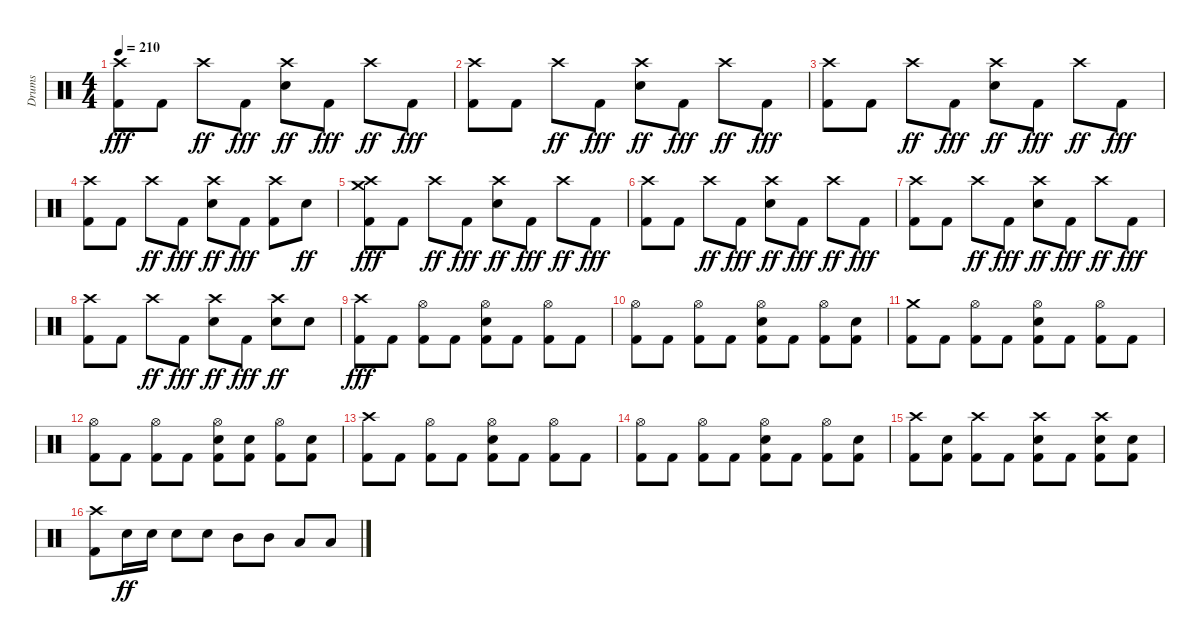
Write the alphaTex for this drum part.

\track ("Drums" "Drums") {instrument percussion}
\staff {score}
\articulation defaults
\ts (4 4)
\tempo 210
\clef neutral
\ks c
("Crash high (hit)" "Kick (hit) 2").8{dy fff} "Kick (hit) 2".8 "Crash high (hit)".8{dy ff} "Kick (hit) 2".8{dy fff} ("Crash high (hit)" "Snare (hit) 2").8{dy ff} "Kick (hit) 2".8{dy fff} "Crash high (hit)".8{dy ff} "Kick (hit) 2".8{dy fff} |
("Crash high (hit)" "Kick (hit) 2").8 "Kick (hit) 2".8 "Crash high (hit)".8{dy ff} "Kick (hit) 2".8{dy fff} ("Crash high (hit)" "Snare (hit) 2").8{dy ff} "Kick (hit) 2".8{dy fff} "Crash high (hit)".8{dy ff} "Kick (hit) 2".8{dy fff} |
("Crash high (hit)" "Kick (hit) 2").8 "Kick (hit) 2".8 "Crash high (hit)".8{dy ff} "Kick (hit) 2".8{dy fff} ("Crash high (hit)" "Snare (hit) 2").8{dy ff} "Kick (hit) 2".8{dy fff} "Crash high (hit)".8{dy ff} "Kick (hit) 2".8{dy fff} |
("Crash high (hit)" "Kick (hit) 2").8 "Kick (hit) 2".8 "Crash high (hit)".8{dy ff} "Kick (hit) 2".8{dy fff} ("Crash high (hit)" "Snare (hit) 2").8{dy ff} "Kick (hit) 2".8{dy fff} ("Crash high (hit)" "Kick (hit) 2").8 "Snare (hit) 2".8{dy ff} |
("Crash medium (hit)" "Crash high (hit)" "Kick (hit) 2").8{dy fff} "Kick (hit) 2".8 "Crash high (hit)".8{dy ff} "Kick (hit) 2".8{dy fff} ("Crash high (hit)" "Snare (hit) 2").8{dy ff} "Kick (hit) 2".8{dy fff} "Crash high (hit)".8{dy ff} "Kick (hit) 2".8{dy fff} |
("Crash high (hit)" "Kick (hit) 2").8 "Kick (hit) 2".8 "Crash high (hit)".8{dy ff} "Kick (hit) 2".8{dy fff} ("Crash high (hit)" "Snare (hit) 2").8{dy ff} "Kick (hit) 2".8{dy fff} "Crash high (hit)".8{dy ff} "Kick (hit) 2".8{dy fff} |
("Crash high (hit)" "Kick (hit) 2").8 "Kick (hit) 2".8 "Crash high (hit)".8{dy ff} "Kick (hit) 2".8{dy fff} ("Crash high (hit)" "Snare (hit) 2").8{dy ff} "Kick (hit) 2".8{dy fff} "Crash high (hit)".8{dy ff} "Kick (hit) 2".8{dy fff} |
("Crash high (hit)" "Kick (hit) 2").8 "Kick (hit) 2".8 "Crash high (hit)".8{dy ff} "Kick (hit) 2".8{dy fff} ("Crash high (hit)" "Snare (hit) 2").8{dy ff} "Kick (hit) 2".8{dy fff} ("Crash high (hit)" "Snare (hit) 2").8{dy ff} "Snare (hit) 2".8 |
("Crash high (hit)" "Kick (hit) 2").8{dy fff} "Kick (hit) 2".8 ("Hi-Hat (open)" "Kick (hit) 2").8 "Kick (hit) 2".8 ("Hi-Hat (open)" "Snare (hit) 2" "Kick (hit) 2").8 "Kick (hit) 2".8 ("Hi-Hat (open)" "Kick (hit) 2").8 "Kick (hit) 2".8 |
("Hi-Hat (open)" "Kick (hit) 2").8 "Kick (hit) 2".8 ("Hi-Hat (open)" "Kick (hit) 2").8 "Kick (hit) 2".8 ("Hi-Hat (open)" "Snare (hit) 2" "Kick (hit) 2").8 "Kick (hit) 2".8 ("Hi-Hat (open)" "Kick (hit) 2").8 ("Snare (hit) 2" "Kick (hit) 2").8 |
("Crash medium (hit)" "Kick (hit) 2").8 "Kick (hit) 2".8 ("Hi-Hat (open)" "Kick (hit) 2").8 "Kick (hit) 2".8 ("Hi-Hat (open)" "Snare (hit) 2" "Kick (hit) 2").8 "Kick (hit) 2".8 ("Hi-Hat (open)" "Kick (hit) 2").8 "Kick (hit) 2".8 |
("Hi-Hat (open)" "Kick (hit) 2").8 "Kick (hit) 2".8 ("Hi-Hat (open)" "Kick (hit) 2").8 "Kick (hit) 2".8 ("Hi-Hat (open)" "Snare (hit) 2" "Kick (hit) 2").8 ("Snare (hit) 2" "Kick (hit) 2").8 ("Hi-Hat (open)" "Kick (hit) 2").8 ("Snare (hit) 2" "Kick (hit) 2").8 |
("Crash high (hit)" "Kick (hit) 2").8 "Kick (hit) 2".8 ("Hi-Hat (open)" "Kick (hit) 2").8 "Kick (hit) 2".8 ("Hi-Hat (open)" "Snare (hit) 2" "Kick (hit) 2").8 "Kick (hit) 2".8 ("Hi-Hat (open)" "Kick (hit) 2").8 "Kick (hit) 2".8 |
("Hi-Hat (open)" "Kick (hit) 2").8 "Kick (hit) 2".8 ("Hi-Hat (open)" "Kick (hit) 2").8 "Kick (hit) 2".8 ("Hi-Hat (open)" "Snare (hit) 2" "Kick (hit) 2").8 "Kick (hit) 2".8 ("Hi-Hat (open)" "Kick (hit) 2").8 ("Snare (hit) 2" "Kick (hit) 2").8 |
("Crash high (hit)" "Kick (hit) 2").8 ("Snare (hit) 2" "Kick (hit) 2").8 ("Crash high (hit)" "Kick (hit) 2").8 "Kick (hit) 2".8 ("Crash high (hit)" "Snare (hit) 2" "Kick (hit) 2").8 "Kick (hit) 2".8 ("Crash high (hit)" "Snare (hit) 2" "Kick (hit) 2").8 ("Snare (hit) 2" "Kick (hit) 2").8 |
("Crash high (hit)" "Kick (hit) 2").8 "Snare (hit) 2".16{dy ff} "Snare (hit) 2".16 "Snare (hit) 2".8 "Snare (hit) 2".8 "Mid Tom (hit)".8 "Mid Tom (hit)".8 "Low Tom (hit)".8 "Low Tom (hit)".8
